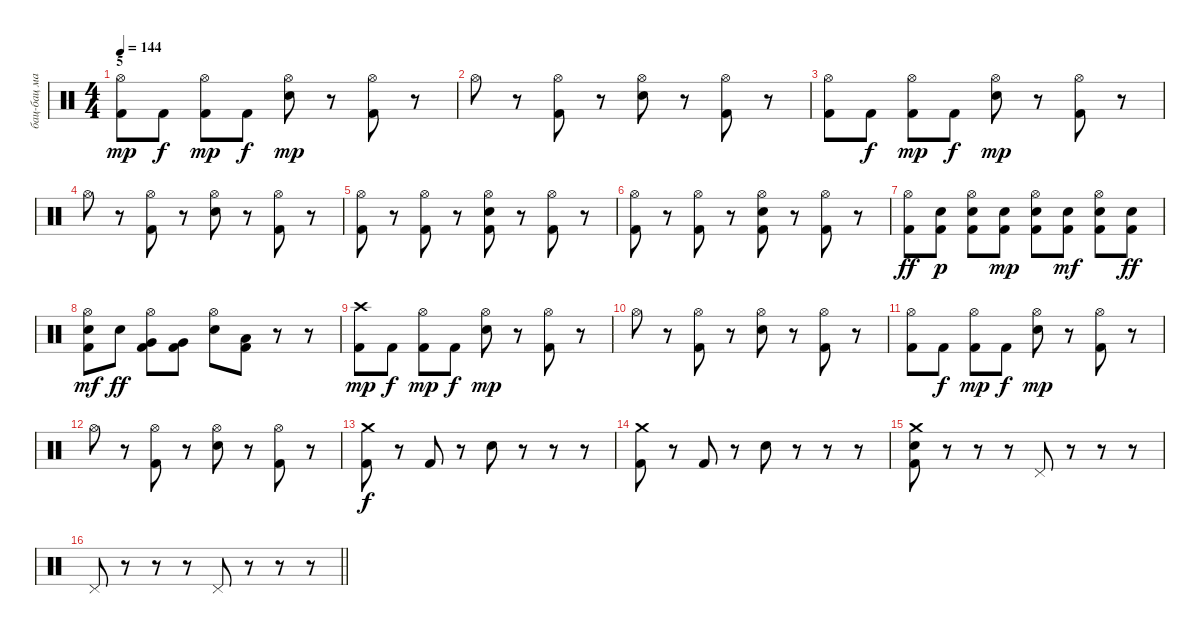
\track ("бац-бац машина" "бац-бац ма") {instrument percussion}
\staff {score}
\articulation defaults
\ts (4 4)
\section ("" "5")
\tempo 144
\clef neutral
\ks c
("Hi-Hat (open)" "Kick (hit) 2").8{dy mp} "Kick (hit) 2".8{dy f} ("Hi-Hat (open)" "Kick (hit) 2").8{dy mp} "Kick (hit) 2".8{dy f} ("Hi-Hat (open)" "Snare (hit) 2").8{dy mp} r.8 ("Hi-Hat (open)" "Kick (hit) 2").8 r.8 |
"Hi-Hat (open)".8 r.8 ("Hi-Hat (open)" "Kick (hit) 2").8 r.8 ("Hi-Hat (open)" "Snare (hit) 2").8 r.8 ("Hi-Hat (open)" "Kick (hit) 2").8 r.8 |
("Hi-Hat (open)" "Kick (hit) 2").8 "Kick (hit) 2".8{dy f} ("Hi-Hat (open)" "Kick (hit) 2").8{dy mp} "Kick (hit) 2".8{dy f} ("Hi-Hat (open)" "Snare (hit) 2").8{dy mp} r.8 ("Hi-Hat (open)" "Kick (hit) 2").8 r.8 |
"Hi-Hat (open)".8 r.8 ("Hi-Hat (open)" "Kick (hit) 2").8 r.8 ("Hi-Hat (open)" "Snare (hit) 2").8 r.8 ("Hi-Hat (open)" "Kick (hit) 2").8 r.8 |
("Hi-Hat (open)" "Kick (hit) 2").8 r.8 ("Hi-Hat (open)" "Kick (hit) 2").8 r.8 ("Hi-Hat (open)" "Snare (hit) 2" "Kick (hit) 2").8 r.8 ("Hi-Hat (open)" "Kick (hit) 2").8 r.8 |
("Hi-Hat (open)" "Kick (hit) 2").8 r.8 ("Hi-Hat (open)" "Kick (hit) 2").8 r.8 ("Hi-Hat (open)" "Snare (hit) 2" "Kick (hit) 2").8 r.8 ("Hi-Hat (open)" "Kick (hit) 2").8 r.8 |
("Hi-Hat (open)" "Kick (hit) 2").8{dy ff} ("Electric Snare (hit)" "Kick (hit) 2").8{dy p} ("Hi-Hat (open)" "Electric Snare (hit)" "Kick (hit) 2").8 ("Electric Snare (hit)" "Kick (hit) 2").8{dy mp} ("Hi-Hat (open)" "Electric Snare (hit)" "Kick (hit) 2").8 ("Electric Snare (hit)" "Kick (hit) 2").8{dy mf} ("Hi-Hat (open)" "Electric Snare (hit)" "Kick (hit) 2").8 ("Electric Snare (hit)" "Kick (hit) 2").8{dy ff} |
("Hi-Hat (open)" "Electric Snare (hit)" "Kick (hit) 2").8{dy mf} "Snare (hit) 2".8{dy ff} ("Hi-Hat (open)" "Very Low Tom (hit)" "Kick (hit) 2").8 ("Very Low Tom (hit)" "Kick (hit) 2").8 ("Hi-Hat (open)" "Snare (hit) 2").8 ("Low Tom (hit)" "Kick (hit) 2").8 r.8 r.8 |
("Crash high (hit)" "Kick (hit) 2").8{dy mp} "Kick (hit) 2".8{dy f} ("Hi-Hat (open)" "Kick (hit) 2").8{dy mp} "Kick (hit) 2".8{dy f} ("Hi-Hat (open)" "Snare (hit) 2").8{dy mp} r.8 ("Hi-Hat (open)" "Kick (hit) 2").8 r.8 |
"Hi-Hat (open)".8 r.8 ("Hi-Hat (open)" "Kick (hit) 2").8 r.8 ("Hi-Hat (open)" "Snare (hit) 2").8 r.8 ("Hi-Hat (open)" "Kick (hit) 2").8 r.8 |
("Hi-Hat (open)" "Kick (hit) 2").8 "Kick (hit) 2".8{dy f} ("Hi-Hat (open)" "Kick (hit) 2").8{dy mp} "Kick (hit) 2".8{dy f} ("Hi-Hat (open)" "Snare (hit) 2").8{dy mp} r.8 ("Hi-Hat (open)" "Kick (hit) 2").8 r.8 |
"Hi-Hat (open)".8 r.8 ("Hi-Hat (open)" "Kick (hit) 2").8 r.8 ("Hi-Hat (open)" "Snare (hit) 2").8 r.8 ("Hi-Hat (open)" "Kick (hit) 2").8 r.8 |
("Crash medium (hit)" "Kick (hit) 2").8{dy f} r.8 "Kick (hit) 2".8 r.8 "Snare (hit) 2".8 r.8 r.8 r.8 |
("Crash medium (hit)" "Kick (hit) 2").8 r.8 "Kick (hit) 2".8 r.8 "Snare (hit) 2".8 r.8 r.8 r.8 |
("Crash medium (hit)" "Snare (hit) 2" "Kick (hit) 2").8 r.8 r.8 r.8 "Pedal Hi-Hat (hit)".8 r.8 r.8 r.8 |
\barLineRight lightlight "Pedal Hi-Hat (hit)".8
r.8 r.8 r.8 "Pedal Hi-Hat (hit)".8 r.8 r.8 r.8
